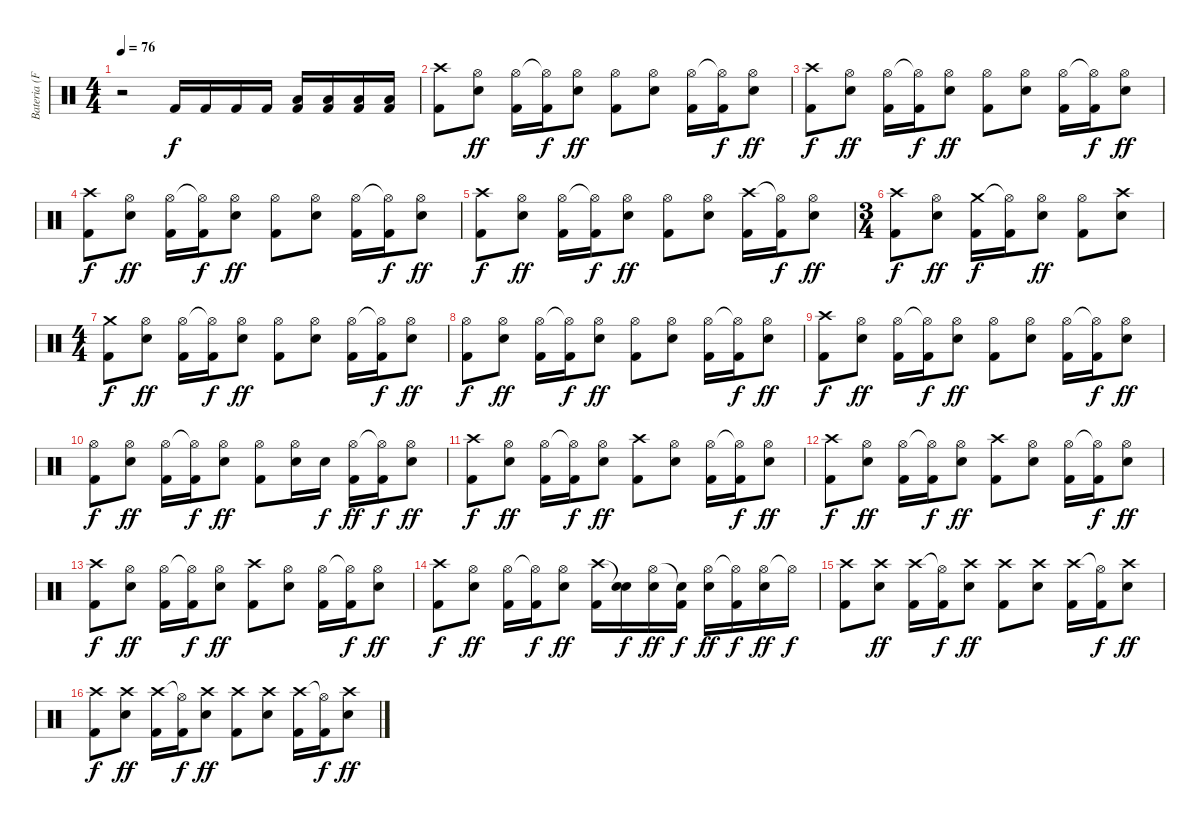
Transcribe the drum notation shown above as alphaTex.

\track ("Bateria (Fê Lemos)" "Bateria (F") {instrument percussion}
\staff {score}
\articulation defaults
\ts (4 4)
\tempo 76
\clef neutral
\ks c
r.2{dy f} "Kick (hit) 2".16 "Kick (hit) 2".16 "Kick (hit) 2".16 "Kick (hit) 2".16 ("Low Tom (hit)" "Kick (hit) 2").16 ("Low Tom (hit)" "Kick (hit) 2").16 ("Low Tom (hit)" "Kick (hit) 2").16 ("Low Tom (hit)" "Kick (hit) 2").16 |
("Crash high (hit)" "Kick (hit) 2").8 ("Hi-Hat (open)" "Electric Snare (hit)").8{dy ff} ("Hi-Hat (open)" "Kick (hit) 2").16 ("Hi-Hat (open)"{t} "Kick (hit) 2").16{dy f} ("Hi-Hat (open)" "Electric Snare (hit)").8{dy ff} ("Hi-Hat (open)" "Kick (hit) 2").8 ("Hi-Hat (open)" "Electric Snare (hit)").8 ("Hi-Hat (open)" "Kick (hit) 2").16 ("Hi-Hat (open)"{t} "Kick (hit) 2").16{dy f} ("Hi-Hat (open)" "Electric Snare (hit)").8{dy ff} |
("Crash high (hit)" "Kick (hit) 2").8{dy f} ("Hi-Hat (open)" "Electric Snare (hit)").8{dy ff} ("Hi-Hat (open)" "Kick (hit) 2").16 ("Hi-Hat (open)"{t} "Kick (hit) 2").16{dy f} ("Hi-Hat (open)" "Electric Snare (hit)").8{dy ff} ("Hi-Hat (open)" "Kick (hit) 2").8 ("Hi-Hat (open)" "Electric Snare (hit)").8 ("Hi-Hat (open)" "Kick (hit) 2").16 ("Hi-Hat (open)"{t} "Kick (hit) 2").16{dy f} ("Hi-Hat (open)" "Electric Snare (hit)").8{dy ff} |
("Crash high (hit)" "Kick (hit) 2").8{dy f} ("Hi-Hat (open)" "Electric Snare (hit)").8{dy ff} ("Hi-Hat (open)" "Kick (hit) 2").16 ("Hi-Hat (open)"{t} "Kick (hit) 2").16{dy f} ("Hi-Hat (open)" "Electric Snare (hit)").8{dy ff} ("Hi-Hat (open)" "Kick (hit) 2").8 ("Hi-Hat (open)" "Electric Snare (hit)").8 ("Hi-Hat (open)" "Kick (hit) 2").16 ("Hi-Hat (open)"{t} "Kick (hit) 2").16{dy f} ("Hi-Hat (open)" "Electric Snare (hit)").8{dy ff} |
("Crash high (hit)" "Kick (hit) 2").8{dy f} ("Hi-Hat (open)" "Electric Snare (hit)").8{dy ff} ("Hi-Hat (open)" "Kick (hit) 2").16 ("Hi-Hat (open)"{t} "Kick (hit) 2").16{dy f} ("Hi-Hat (open)" "Electric Snare (hit)").8{dy ff} ("Hi-Hat (open)" "Kick (hit) 2").8 ("Hi-Hat (open)" "Electric Snare (hit)").8 ("Crash high (hit)" "Kick (hit) 2").16 ("Hi-Hat (open)"{t} "Kick (hit) 2").16{dy f} ("Hi-Hat (open)" "Electric Snare (hit)").8{dy ff} |
\ts (3 4)
("Crash high (hit)" "Kick (hit) 2").8{dy f} ("Hi-Hat (open)" "Electric Snare (hit)").8{dy ff} ("Crash medium (hit)" "Kick (hit) 2").16{dy f} ("Hi-Hat (open)"{t} "Kick (hit) 2").16 ("Hi-Hat (open)" "Electric Snare (hit)").8{dy ff} ("Hi-Hat (open)" "Kick (hit) 2").8 ("Crash high (hit)" "Electric Snare (hit)").8 |
\ts (4 4)
("Crash medium (hit)" "Kick (hit) 2").8{dy f} ("Hi-Hat (open)" "Electric Snare (hit)").8{dy ff} ("Hi-Hat (open)" "Kick (hit) 2").16 ("Hi-Hat (open)"{t} "Kick (hit) 2").16{dy f} ("Hi-Hat (open)" "Electric Snare (hit)").8{dy ff} ("Hi-Hat (open)" "Kick (hit) 2").8 ("Hi-Hat (open)" "Electric Snare (hit)").8 ("Hi-Hat (open)" "Kick (hit) 2").16 ("Hi-Hat (open)"{t} "Kick (hit) 2").16{dy f} ("Hi-Hat (open)" "Electric Snare (hit)").8{dy ff} |
("Hi-Hat (open)" "Kick (hit) 2").8{dy f} ("Hi-Hat (open)" "Electric Snare (hit)").8{dy ff} ("Hi-Hat (open)" "Kick (hit) 2").16 ("Hi-Hat (open)"{t} "Kick (hit) 2").16{dy f} ("Hi-Hat (open)" "Electric Snare (hit)").8{dy ff} ("Hi-Hat (open)" "Kick (hit) 2").8 ("Hi-Hat (open)" "Electric Snare (hit)").8 ("Hi-Hat (open)" "Kick (hit) 2").16 ("Hi-Hat (open)"{t} "Kick (hit) 2").16{dy f} ("Hi-Hat (open)" "Electric Snare (hit)").8{dy ff} |
("Crash high (hit)" "Kick (hit) 2").8{dy f} ("Hi-Hat (open)" "Electric Snare (hit)").8{dy ff} ("Hi-Hat (open)" "Kick (hit) 2").16 ("Hi-Hat (open)"{t} "Kick (hit) 2").16{dy f} ("Hi-Hat (open)" "Electric Snare (hit)").8{dy ff} ("Hi-Hat (open)" "Kick (hit) 2").8 ("Hi-Hat (open)" "Electric Snare (hit)").8 ("Hi-Hat (open)" "Kick (hit) 2").16 ("Hi-Hat (open)"{t} "Kick (hit) 2").16{dy f} ("Hi-Hat (open)" "Electric Snare (hit)").8{dy ff} |
("Hi-Hat (open)" "Kick (hit) 2").8{dy f} ("Hi-Hat (open)" "Electric Snare (hit)").8{dy ff} ("Hi-Hat (open)" "Kick (hit) 2").16 ("Hi-Hat (open)"{t} "Kick (hit) 2").16{dy f} ("Hi-Hat (open)" "Electric Snare (hit)").8{dy ff} ("Hi-Hat (open)" "Kick (hit) 2").8 ("Hi-Hat (open)" "Electric Snare (hit)").16 "Electric Snare (hit)".16{dy f} ("Hi-Hat (open)" "Kick (hit) 2").16{dy ff} ("Hi-Hat (open)"{t} "Kick (hit) 2").16{dy f} ("Hi-Hat (open)" "Electric Snare (hit)").8{dy ff} |
("Crash high (hit)" "Kick (hit) 2").8{dy f} ("Hi-Hat (open)" "Electric Snare (hit)").8{dy ff} ("Hi-Hat (open)" "Kick (hit) 2").16 ("Hi-Hat (open)"{t} "Kick (hit) 2").16{dy f} ("Hi-Hat (open)" "Electric Snare (hit)").8{dy ff} ("Crash high (hit)" "Kick (hit) 2").8 ("Hi-Hat (open)" "Electric Snare (hit)").8 ("Hi-Hat (open)" "Kick (hit) 2").16 ("Hi-Hat (open)"{t} "Kick (hit) 2").16{dy f} ("Hi-Hat (open)" "Electric Snare (hit)").8{dy ff} |
("Crash high (hit)" "Kick (hit) 2").8{dy f} ("Hi-Hat (open)" "Electric Snare (hit)").8{dy ff} ("Hi-Hat (open)" "Kick (hit) 2").16 ("Hi-Hat (open)"{t} "Kick (hit) 2").16{dy f} ("Hi-Hat (open)" "Electric Snare (hit)").8{dy ff} ("Crash high (hit)" "Kick (hit) 2").8 ("Hi-Hat (open)" "Electric Snare (hit)").8 ("Hi-Hat (open)" "Kick (hit) 2").16 ("Hi-Hat (open)"{t} "Kick (hit) 2").16{dy f} ("Hi-Hat (open)" "Electric Snare (hit)").8{dy ff} |
("Crash high (hit)" "Kick (hit) 2").8{dy f} ("Hi-Hat (open)" "Electric Snare (hit)").8{dy ff} ("Hi-Hat (open)" "Kick (hit) 2").16 ("Hi-Hat (open)"{t} "Kick (hit) 2").16{dy f} ("Hi-Hat (open)" "Electric Snare (hit)").8{dy ff} ("Crash high (hit)" "Kick (hit) 2").8 ("Hi-Hat (open)" "Electric Snare (hit)").8 ("Hi-Hat (open)" "Kick (hit) 2").16 ("Hi-Hat (open)"{t} "Kick (hit) 2").16{dy f} ("Hi-Hat (open)" "Electric Snare (hit)").8{dy ff} |
("Crash high (hit)" "Kick (hit) 2").8{dy f} ("Hi-Hat (open)" "Electric Snare (hit)").8{dy ff} ("Hi-Hat (open)" "Kick (hit) 2").16 ("Hi-Hat (open)"{t} "Kick (hit) 2").16{dy f} ("Hi-Hat (open)" "Electric Snare (hit)").8{dy ff} ("Crash high (hit)" "Kick (hit) 2").16 ("Snare (hit)"{t} "Electric Snare (hit)").16{dy f} ("Hi-Hat (open)" "Electric Snare (hit)").16{dy ff} ("Snare (hit)"{t} "Kick (hit) 2").16{dy f} ("Hi-Hat (open)" "Electric Snare (hit)").16{dy ff} ("Hi-Hat (open)"{t} "Kick (hit) 2").16{dy f} ("Hi-Hat (open)" "Electric Snare (hit)").16{dy ff} "Hi-Hat (open)"{t}.16{dy f} |
("Crash high (hit)" "Kick (hit) 2").8 ("Crash high (hit)" "Electric Snare (hit)").8{dy ff} ("Crash high (hit)" "Kick (hit) 2").16 ("Hi-Hat (open)"{t} "Kick (hit) 2").16{dy f} ("Crash high (hit)" "Electric Snare (hit)").8{dy ff} ("Crash high (hit)" "Kick (hit) 2").8 ("Crash high (hit)" "Electric Snare (hit)").8 ("Crash high (hit)" "Kick (hit) 2").16 ("Hi-Hat (open)"{t} "Kick (hit) 2").16{dy f} ("Crash high (hit)" "Electric Snare (hit)").8{dy ff} |
("Crash high (hit)" "Kick (hit) 2").8{dy f} ("Crash high (hit)" "Electric Snare (hit)").8{dy ff} ("Crash high (hit)" "Kick (hit) 2").16 ("Hi-Hat (open)"{t} "Kick (hit) 2").16{dy f} ("Crash high (hit)" "Electric Snare (hit)").8{dy ff} ("Crash high (hit)" "Kick (hit) 2").8 ("Crash high (hit)" "Electric Snare (hit)").8 ("Crash high (hit)" "Kick (hit) 2").16 ("Hi-Hat (open)"{t} "Kick (hit) 2").16{dy f} ("Crash high (hit)" "Electric Snare (hit)").8{dy ff}
